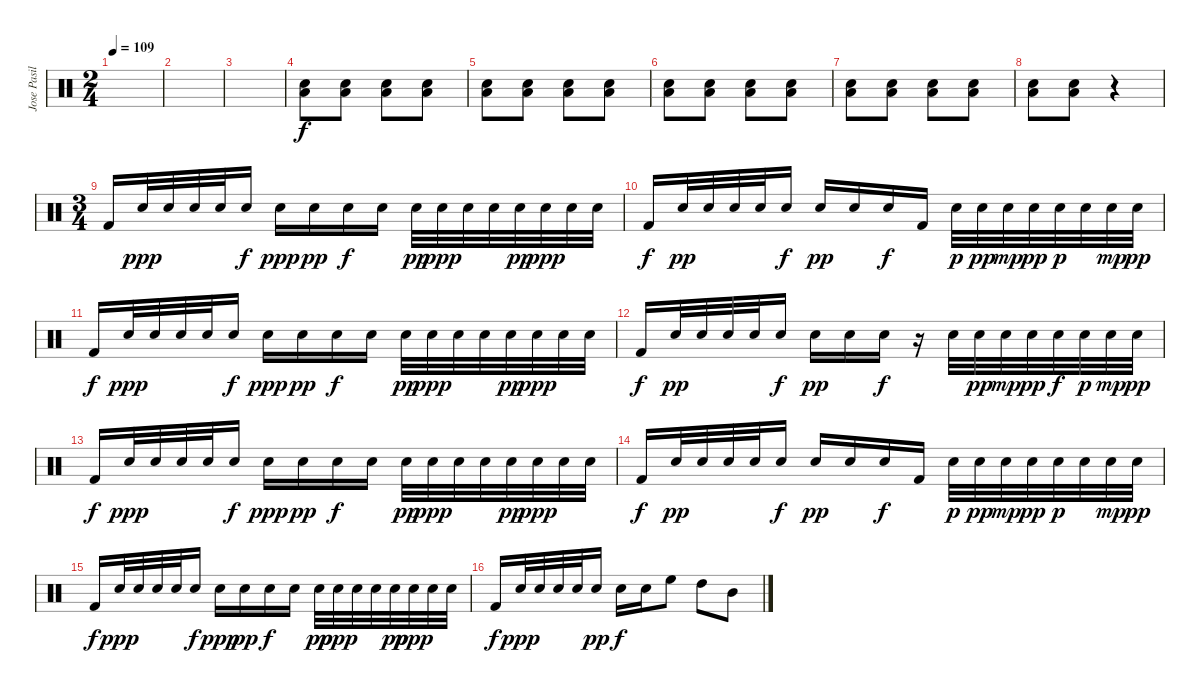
\track ("Jose Pasillas" "Jose Pasil") {instrument percussion}
\staff {score}
\articulation defaults
\ts (2 4)
\tempo 109
\clef neutral
\ks c
|
|
|
("Low Floor Tom (hit)" "Electric Snare (hit)").8{volume 4} ("Low Floor Tom (hit)" "Electric Snare (hit)").8 ("Low Floor Tom (hit)" "Electric Snare (hit)").8 ("Low Floor Tom (hit)" "Electric Snare (hit)").8 |
("Low Floor Tom (hit)" "Electric Snare (hit)").8{volume 8} ("Low Floor Tom (hit)" "Electric Snare (hit)").8 ("Low Floor Tom (hit)" "Electric Snare (hit)").8 ("Low Floor Tom (hit)" "Electric Snare (hit)").8 |
("Low Floor Tom (hit)" "Electric Snare (hit)").8{volume 10} ("Low Floor Tom (hit)" "Electric Snare (hit)").8 ("Low Floor Tom (hit)" "Electric Snare (hit)").8 ("Low Floor Tom (hit)" "Electric Snare (hit)").8 |
("Low Floor Tom (hit)" "Electric Snare (hit)").8{volume 12} ("Low Floor Tom (hit)" "Electric Snare (hit)").8 ("Low Floor Tom (hit)" "Electric Snare (hit)").8 ("Low Floor Tom (hit)" "Electric Snare (hit)").8 |
("Low Floor Tom (hit)" "Electric Snare (hit)").8{volume 16} ("Low Floor Tom (hit)" "Electric Snare (hit)").8 r.4 |
\ts (3 4)
"Kick (hit) 2".16 "Electric Snare (hit)".32{dy ppp} "Electric Snare (hit)".32 "Electric Snare (hit)".32 "Electric Snare (hit)".32 "Electric Snare (hit)".16{dy f} "Electric Snare (hit)".16{dy ppp} "Electric Snare (hit)".16{dy pp} "Electric Snare (hit)".16{dy f} "Electric Snare (hit)".16 "Electric Snare (hit)".32{dy pp} "Electric Snare (hit)".32{dy ppp} "Electric Snare (hit)".32 "Electric Snare (hit)".32 "Electric Snare (hit)".32{dy pp} "Electric Snare (hit)".32{dy ppp} "Electric Snare (hit)".32 "Electric Snare (hit)".32 |
"Kick (hit) 2".16{dy f} "Electric Snare (hit)".32{dy pp} "Electric Snare (hit)".32 "Electric Snare (hit)".32 "Electric Snare (hit)".32 "Electric Snare (hit)".16{dy f} "Electric Snare (hit)".16{dy pp} "Electric Snare (hit)".16 "Electric Snare (hit)".16{dy f} "Kick (hit) 2".16 "Electric Snare (hit)".32{dy p} "Electric Snare (hit)".32{dy pp} "Electric Snare (hit)".32{dy mp} "Electric Snare (hit)".32{dy pp} "Electric Snare (hit)".32{dy p} "Electric Snare (hit)".32 "Electric Snare (hit)".32{dy mp} "Electric Snare (hit)".32{dy pp} |
"Kick (hit) 2".16{dy f} "Electric Snare (hit)".32{dy ppp} "Electric Snare (hit)".32 "Electric Snare (hit)".32 "Electric Snare (hit)".32 "Electric Snare (hit)".16{dy f} "Electric Snare (hit)".16{dy ppp} "Electric Snare (hit)".16{dy pp} "Electric Snare (hit)".16{dy f} "Electric Snare (hit)".16 "Electric Snare (hit)".32{dy pp} "Electric Snare (hit)".32{dy ppp} "Electric Snare (hit)".32 "Electric Snare (hit)".32 "Electric Snare (hit)".32{dy pp} "Electric Snare (hit)".32{dy ppp} "Electric Snare (hit)".32 "Electric Snare (hit)".32 |
"Kick (hit) 2".16{dy f} "Electric Snare (hit)".32{dy pp} "Electric Snare (hit)".32 "Electric Snare (hit)".32 "Electric Snare (hit)".32 "Electric Snare (hit)".16{dy f} "Electric Snare (hit)".16{dy pp} "Electric Snare (hit)".16 "Electric Snare (hit)".16{dy f} r.16 "Electric Snare (hit)".32 "Electric Snare (hit)".32{dy pp} "Electric Snare (hit)".32{dy mp} "Electric Snare (hit)".32{dy pp} "Electric Snare (hit)".32{dy f} "Electric Snare (hit)".32{dy p} "Electric Snare (hit)".32{dy mp} "Electric Snare (hit)".32{dy pp} |
"Kick (hit) 2".16{dy f} "Electric Snare (hit)".32{dy ppp} "Electric Snare (hit)".32 "Electric Snare (hit)".32 "Electric Snare (hit)".32 "Electric Snare (hit)".16{dy f} "Electric Snare (hit)".16{dy ppp} "Electric Snare (hit)".16{dy pp} "Electric Snare (hit)".16{dy f} "Electric Snare (hit)".16 "Electric Snare (hit)".32{dy pp} "Electric Snare (hit)".32{dy ppp} "Electric Snare (hit)".32 "Electric Snare (hit)".32 "Electric Snare (hit)".32{dy pp} "Electric Snare (hit)".32{dy ppp} "Electric Snare (hit)".32 "Electric Snare (hit)".32 |
"Kick (hit) 2".16{dy f} "Electric Snare (hit)".32{dy pp} "Electric Snare (hit)".32 "Electric Snare (hit)".32 "Electric Snare (hit)".32 "Electric Snare (hit)".16{dy f} "Electric Snare (hit)".16{dy pp} "Electric Snare (hit)".16 "Electric Snare (hit)".16{dy f} "Kick (hit) 2".16 "Electric Snare (hit)".32{dy p} "Electric Snare (hit)".32{dy pp} "Electric Snare (hit)".32{dy mp} "Electric Snare (hit)".32{dy pp} "Electric Snare (hit)".32{dy p} "Electric Snare (hit)".32 "Electric Snare (hit)".32{dy mp} "Electric Snare (hit)".32{dy pp} |
"Kick (hit) 2".16{dy f} "Electric Snare (hit)".32{dy ppp} "Electric Snare (hit)".32 "Electric Snare (hit)".32 "Electric Snare (hit)".32 "Electric Snare (hit)".16{dy f} "Electric Snare (hit)".16{dy ppp} "Electric Snare (hit)".16{dy pp} "Electric Snare (hit)".16{dy f} "Electric Snare (hit)".16 "Electric Snare (hit)".32{dy pp} "Electric Snare (hit)".32{dy ppp} "Electric Snare (hit)".32 "Electric Snare (hit)".32 "Electric Snare (hit)".32{dy pp} "Electric Snare (hit)".32{dy ppp} "Electric Snare (hit)".32 "Electric Snare (hit)".32 |
"Kick (hit) 2".16{dy f} "Electric Snare (hit)".32{dy ppp} "Electric Snare (hit)".32 "Electric Snare (hit)".32 "Electric Snare (hit)".32 "Electric Snare (hit)".16{dy pp} "Electric Snare (hit)".16{dy f} "Electric Snare (hit)".16 "High Floor Tom (hit)".8 "High Tom (hit)".8 "Mid Tom (hit)".8
